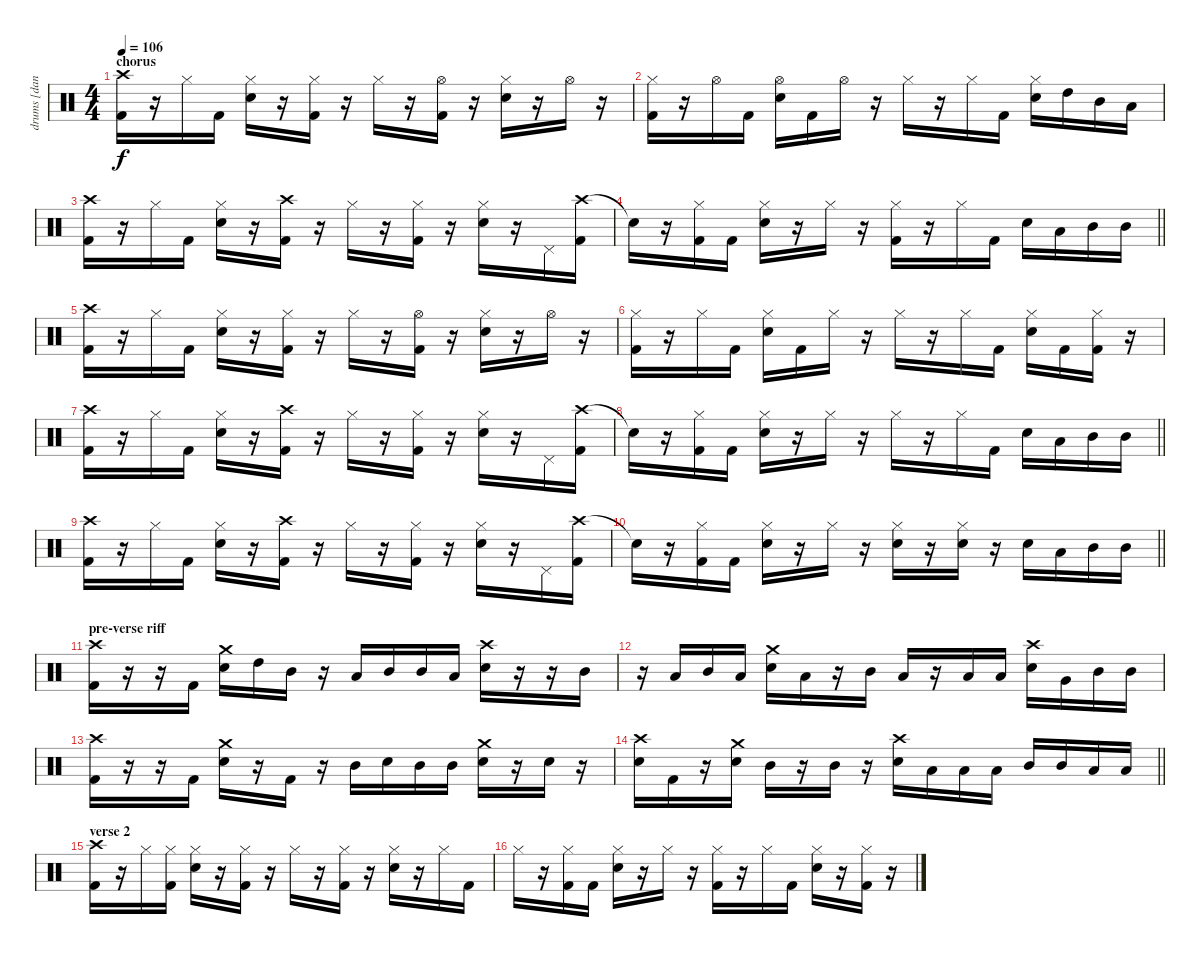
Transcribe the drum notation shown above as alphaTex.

\track ("drums [danny carey]" "drums [dan") {instrument percussion}
\staff {score}
\articulation defaults
\ts (4 4)
\section ("" "chorus")
\tempo 106
\clef neutral
\ks c
("Crash high (hit)" "Kick (hit) 2").16{dy f} r.16 "Hi-Hat (closed)".16 "Kick (hit) 2".16 ("Hi-Hat (closed)" "Electric Snare (hit)").16 r.16 ("Hi-Hat (closed)" "Kick (hit) 2").16 r.16 "Hi-Hat (closed)".16 r.16 ("Hi-Hat (open)" "Kick (hit) 2").16 r.16 ("Hi-Hat (closed)" "Electric Snare (hit)").16 r.16 "Hi-Hat (open)".16 r.16 |
("Hi-Hat (closed)" "Kick (hit) 2").16 r.16 "Hi-Hat (open)".16 "Kick (hit) 2".16 ("Hi-Hat (open)" "Electric Snare (hit)").16 "Kick (hit) 2".16 "Hi-Hat (open)".16 r.16 "Hi-Hat (closed)".16 r.16 "Hi-Hat (closed)".16 "Kick (hit) 2".16 ("Hi-Hat (closed)" "Electric Snare (hit)").16 "High Tom (hit)".16 "Mid Tom (hit)".16 "Low Tom (hit)".16 |
("Crash high (hit)" "Kick (hit) 2").16 r.16 "Hi-Hat (closed)".16 "Kick (hit) 2".16 ("Hi-Hat (closed)" "Electric Snare (hit)").16 r.16 ("Crash high (hit)" "Kick (hit) 2").16 r.16 "Hi-Hat (closed)".16 r.16 ("Hi-Hat (closed)" "Kick (hit) 2").16 r.16 ("Hi-Hat (closed)" "Electric Snare (hit)").16 r.16 "Pedal Hi-Hat (hit)".16 ("Crash high (hit)" "Kick (hit) 2").16 |
\barLineRight lightlight "Snare (hit)"{t}.16
r.16 ("Hi-Hat (closed)" "Kick (hit) 2").16 "Kick (hit) 2".16 ("Hi-Hat (closed)" "Electric Snare (hit)").16 r.16 "Hi-Hat (closed)".16 r.16 ("Hi-Hat (closed)" "Kick (hit) 2").16 r.16 "Hi-Hat (closed)".16 "Kick (hit) 2".16 "Electric Snare (hit)".16 "Low Tom (hit)".16 "Mid Tom (hit)".16 "Mid Tom (hit)".16 |
("Crash high (hit)" "Kick (hit) 2").16 r.16 "Hi-Hat (closed)".16 "Kick (hit) 2".16 ("Hi-Hat (closed)" "Electric Snare (hit)").16 r.16 ("Hi-Hat (closed)" "Kick (hit) 2").16 r.16 "Hi-Hat (closed)".16 r.16 ("Hi-Hat (open)" "Kick (hit) 2").16 r.16 ("Hi-Hat (closed)" "Electric Snare (hit)").16 r.16 "Hi-Hat (open)".16 r.16 |
("Hi-Hat (closed)" "Kick (hit) 2").16 r.16 "Hi-Hat (closed)".16 "Kick (hit) 2".16 ("Hi-Hat (closed)" "Electric Snare (hit)").16 "Kick (hit) 2".16 "Hi-Hat (closed)".16 r.16 "Hi-Hat (closed)".16 r.16 "Hi-Hat (closed)".16 "Kick (hit) 2".16 ("Hi-Hat (closed)" "Electric Snare (hit)").16 "Kick (hit) 2".16 ("Hi-Hat (closed)" "Kick (hit) 2").16 r.16 |
("Crash high (hit)" "Kick (hit) 2").16 r.16 "Hi-Hat (closed)".16 "Kick (hit) 2".16 ("Hi-Hat (closed)" "Electric Snare (hit)").16 r.16 ("Crash high (hit)" "Kick (hit) 2").16 r.16 "Hi-Hat (closed)".16 r.16 ("Hi-Hat (closed)" "Kick (hit) 2").16 r.16 ("Hi-Hat (closed)" "Electric Snare (hit)").16 r.16 "Pedal Hi-Hat (hit)".16 ("Crash high (hit)" "Kick (hit) 2").16 |
\barLineRight lightlight "Snare (hit)"{t}.16
r.16 ("Hi-Hat (closed)" "Kick (hit) 2").16 "Kick (hit) 2".16 ("Hi-Hat (closed)" "Electric Snare (hit)").16 r.16 "Hi-Hat (closed)".16 r.16 "Hi-Hat (closed)".16 r.16 "Hi-Hat (closed)".16 "Kick (hit) 2".16 "Electric Snare (hit)".16 "Low Tom (hit)".16 "Mid Tom (hit)".16 "Mid Tom (hit)".16 |
("Crash high (hit)" "Kick (hit) 2").16 r.16 "Hi-Hat (closed)".16 "Kick (hit) 2".16 ("Hi-Hat (closed)" "Electric Snare (hit)").16 r.16 ("Crash high (hit)" "Kick (hit) 2").16 r.16 "Hi-Hat (closed)".16 r.16 ("Hi-Hat (closed)" "Kick (hit) 2").16 r.16 ("Hi-Hat (closed)" "Electric Snare (hit)").16 r.16 "Pedal Hi-Hat (hit)".16 ("Crash high (hit)" "Kick (hit) 2").16 |
\barLineRight lightlight "Snare (hit)"{t}.16
r.16 ("Hi-Hat (closed)" "Kick (hit) 2").16 "Kick (hit) 2".16 ("Hi-Hat (closed)" "Electric Snare (hit)").16 r.16 "Hi-Hat (closed)".16 r.16 ("Hi-Hat (closed)" "Electric Snare (hit)").16 r.16 ("Hi-Hat (closed)" "Electric Snare (hit)").16 r.16 "Electric Snare (hit)".16 "Low Tom (hit)".16 "Mid Tom (hit)".16 "Mid Tom (hit)".16 |
\section ("" "pre-verse riff")
("Crash high (hit)" "Kick (hit) 2").16 r.16 r.16 "Kick (hit) 2".16 ("Crash medium (hit)" "Electric Snare (hit)").16 "High Tom (hit)".16 "Mid Tom (hit)".16 r.16 "Low Tom (hit)".16 "Mid Tom (hit)".16 "Mid Tom (hit)".16 "Low Tom (hit)".16 ("Crash high (hit)" "Electric Snare (hit)").16 r.16 r.16 "Mid Tom (hit)".16 |
r.16 "Low Tom (hit)".16 "Mid Tom (hit)".16 "Low Tom (hit)".16 ("Crash medium (hit)" "Electric Snare (hit)").16 "Low Tom (hit)".16 r.16 "Mid Tom (hit)".16 "Low Tom (hit)".16 r.16 "Low Tom (hit)".16 "Low Tom (hit)".16 ("Crash high (hit)" "Electric Snare (hit)").16 "Very Low Tom (hit)".16 "Mid Tom (hit)".16 "Mid Tom (hit)".16 |
("Crash high (hit)" "Kick (hit) 2").16 r.16 r.16 "Kick (hit) 2".16 ("Crash medium (hit)" "Electric Snare (hit)").16 r.16 "Kick (hit) 2".16 r.16 "Mid Tom (hit)".16 "Electric Snare (hit)".16 "Mid Tom (hit)".16 "Mid Tom (hit)".16 ("Crash medium (hit)" "Electric Snare (hit)").16 r.16 "Electric Snare (hit)".16 r.16 |
\barLineRight lightlight
("Crash high (hit)" "Electric Snare (hit)").16 "Kick (hit) 2".16 r.16 ("Crash medium (hit)" "Electric Snare (hit)").16 "Mid Tom (hit)".16 r.16 "Mid Tom (hit)".16 r.16 ("Crash high (hit)" "Electric Snare (hit)").16 "Low Tom (hit)".16 "Low Tom (hit)".16 "Low Tom (hit)".16 "Mid Tom (hit)".16 "Mid Tom (hit)".16 "Low Tom (hit)".16 "Low Tom (hit)".16 |
\section ("" "verse 2")
("Crash high (hit)" "Kick (hit) 2").16 r.16 "Hi-Hat (closed)".16 ("Hi-Hat (closed)" "Kick (hit) 2").16 ("Hi-Hat (closed)" "Electric Snare (hit)").16 r.16 ("Hi-Hat (closed)" "Kick (hit) 2").16 r.16 "Hi-Hat (closed)".16 r.16 ("Hi-Hat (closed)" "Kick (hit) 2").16 r.16 ("Hi-Hat (closed)" "Electric Snare (hit)").16 r.16 "Hi-Hat (closed)".16 "Kick (hit) 2".16 |
"Hi-Hat (closed)".16 r.16 ("Hi-Hat (closed)" "Kick (hit) 2").16 "Kick (hit) 2".16 ("Hi-Hat (closed)" "Electric Snare (hit)").16 r.16 "Hi-Hat (closed)".16 r.16 ("Hi-Hat (closed)" "Kick (hit) 2").16 r.16 "Hi-Hat (closed)".16 "Kick (hit) 2".16 ("Hi-Hat (closed)" "Electric Snare (hit)").16 r.16 ("Hi-Hat (closed)" "Kick (hit) 2").16 r.16
